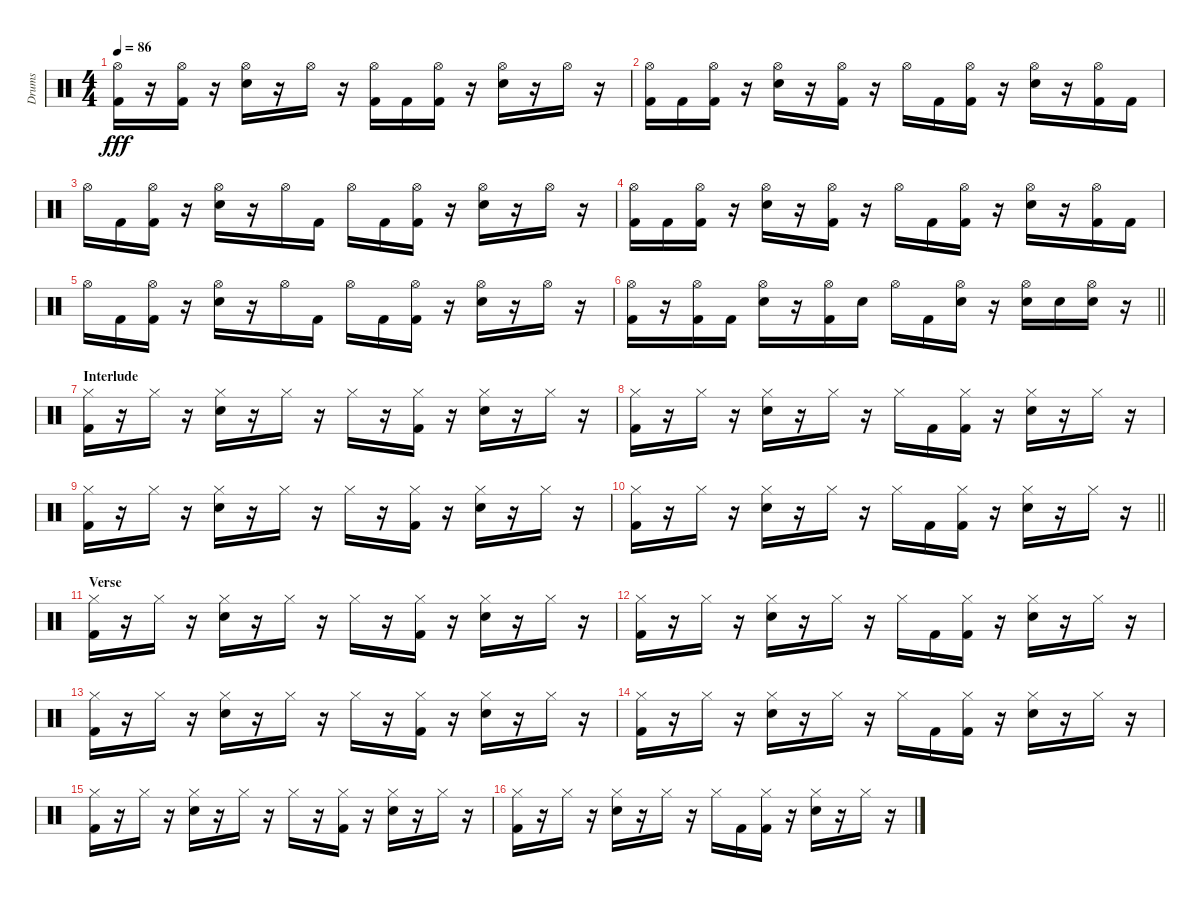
\track ("Drums" "Drums") {instrument percussion}
\staff {score}
\articulation defaults
\ts (4 4)
\tempo 86
\clef neutral
\ks c
("Hi-Hat (open)" "Kick (hit) 2").16{dy fff} r.16 ("Hi-Hat (open)" "Kick (hit) 2").16 r.16 ("Hi-Hat (open)" "Electric Snare (hit)").16 r.16 "Hi-Hat (open)".16 r.16 ("Hi-Hat (open)" "Kick (hit) 2").16 "Kick (hit) 2".16 ("Hi-Hat (open)" "Kick (hit) 2").16 r.16 ("Hi-Hat (open)" "Electric Snare (hit)").16 r.16 "Hi-Hat (open)".16 r.16 |
("Hi-Hat (open)" "Kick (hit) 2").16 "Kick (hit) 2".16 ("Hi-Hat (open)" "Kick (hit) 2").16 r.16 ("Hi-Hat (open)" "Electric Snare (hit)").16 r.16 ("Hi-Hat (open)" "Kick (hit) 2").16 r.16 "Hi-Hat (open)".16 "Kick (hit) 2".16 ("Hi-Hat (open)" "Kick (hit) 2").16 r.16 ("Hi-Hat (open)" "Electric Snare (hit)").16 r.16 ("Hi-Hat (open)" "Kick (hit) 2").16 "Kick (hit) 2".16 |
"Hi-Hat (open)".16 "Kick (hit) 2".16 ("Hi-Hat (open)" "Kick (hit) 2").16 r.16 ("Hi-Hat (open)" "Electric Snare (hit)").16 r.16 "Hi-Hat (open)".16 "Kick (hit) 2".16 "Hi-Hat (open)".16 "Kick (hit) 2".16 ("Hi-Hat (open)" "Kick (hit) 2").16 r.16 ("Hi-Hat (open)" "Electric Snare (hit)").16 r.16 "Hi-Hat (open)".16 r.16 |
("Hi-Hat (open)" "Kick (hit) 2").16 "Kick (hit) 2".16 ("Hi-Hat (open)" "Kick (hit) 2").16 r.16 ("Hi-Hat (open)" "Electric Snare (hit)").16 r.16 ("Hi-Hat (open)" "Kick (hit) 2").16 r.16 "Hi-Hat (open)".16 "Kick (hit) 2".16 ("Hi-Hat (open)" "Kick (hit) 2").16 r.16 ("Hi-Hat (open)" "Electric Snare (hit)").16 r.16 ("Hi-Hat (open)" "Kick (hit) 2").16 "Kick (hit) 2".16 |
"Hi-Hat (open)".16 "Kick (hit) 2".16 ("Hi-Hat (open)" "Kick (hit) 2").16 r.16 ("Hi-Hat (open)" "Electric Snare (hit)").16 r.16 "Hi-Hat (open)".16 "Kick (hit) 2".16 "Hi-Hat (open)".16 "Kick (hit) 2".16 ("Hi-Hat (open)" "Kick (hit) 2").16 r.16 ("Hi-Hat (open)" "Electric Snare (hit)").16 r.16 "Hi-Hat (open)".16 r.16 |
\barLineRight lightlight
("Hi-Hat (open)" "Kick (hit) 2").16 r.16 ("Hi-Hat (open)" "Kick (hit) 2").16 "Kick (hit) 2".16 ("Hi-Hat (open)" "Electric Snare (hit)").16 r.16 ("Hi-Hat (open)" "Kick (hit) 2").16 "Electric Snare (hit)".16 "Hi-Hat (open)".16 "Kick (hit) 2".16 ("Hi-Hat (open)" "Electric Snare (hit)").16 r.16 ("Hi-Hat (open)" "Electric Snare (hit)").16 "Electric Snare (hit)".16 ("Hi-Hat (open)" "Electric Snare (hit)").16 r.16 |
\section ("" "Interlude")
("Hi-Hat (closed)" "Kick (hit) 2").16 r.16 "Hi-Hat (closed)".16 r.16 ("Hi-Hat (closed)" "Electric Snare (hit)").16 r.16 "Hi-Hat (closed)".16 r.16 "Hi-Hat (closed)".16 r.16 ("Hi-Hat (closed)" "Kick (hit) 2").16 r.16 ("Hi-Hat (closed)" "Electric Snare (hit)").16 r.16 "Hi-Hat (closed)".16 r.16 |
("Hi-Hat (closed)" "Kick (hit) 2").16 r.16 "Hi-Hat (closed)".16 r.16 ("Hi-Hat (closed)" "Electric Snare (hit)").16 r.16 "Hi-Hat (closed)".16 r.16 "Hi-Hat (closed)".16 "Kick (hit) 2".16 ("Hi-Hat (closed)" "Kick (hit) 2").16 r.16 ("Hi-Hat (closed)" "Electric Snare (hit)").16 r.16 "Hi-Hat (closed)".16 r.16 |
("Hi-Hat (closed)" "Kick (hit) 2").16 r.16 "Hi-Hat (closed)".16 r.16 ("Hi-Hat (closed)" "Electric Snare (hit)").16 r.16 "Hi-Hat (closed)".16 r.16 "Hi-Hat (closed)".16 r.16 ("Hi-Hat (closed)" "Kick (hit) 2").16 r.16 ("Hi-Hat (closed)" "Electric Snare (hit)").16 r.16 "Hi-Hat (closed)".16 r.16 |
\barLineRight lightlight
("Hi-Hat (closed)" "Kick (hit) 2").16 r.16 "Hi-Hat (closed)".16 r.16 ("Hi-Hat (closed)" "Electric Snare (hit)").16 r.16 "Hi-Hat (closed)".16 r.16 "Hi-Hat (closed)".16 "Kick (hit) 2".16 ("Hi-Hat (closed)" "Kick (hit) 2").16 r.16 ("Hi-Hat (closed)" "Electric Snare (hit)").16 r.16 "Hi-Hat (closed)".16 r.16 |
\section ("" "Verse")
("Hi-Hat (closed)" "Kick (hit) 2").16 r.16 "Hi-Hat (closed)".16 r.16 ("Hi-Hat (closed)" "Electric Snare (hit)").16 r.16 "Hi-Hat (closed)".16 r.16 "Hi-Hat (closed)".16 r.16 ("Hi-Hat (closed)" "Kick (hit) 2").16 r.16 ("Hi-Hat (closed)" "Electric Snare (hit)").16 r.16 "Hi-Hat (closed)".16 r.16 |
("Hi-Hat (closed)" "Kick (hit) 2").16 r.16 "Hi-Hat (closed)".16 r.16 ("Hi-Hat (closed)" "Electric Snare (hit)").16 r.16 "Hi-Hat (closed)".16 r.16 "Hi-Hat (closed)".16 "Kick (hit) 2".16 ("Hi-Hat (closed)" "Kick (hit) 2").16 r.16 ("Hi-Hat (closed)" "Electric Snare (hit)").16 r.16 "Hi-Hat (closed)".16 r.16 |
("Hi-Hat (closed)" "Kick (hit) 2").16 r.16 "Hi-Hat (closed)".16 r.16 ("Hi-Hat (closed)" "Electric Snare (hit)").16 r.16 "Hi-Hat (closed)".16 r.16 "Hi-Hat (closed)".16 r.16 ("Hi-Hat (closed)" "Kick (hit) 2").16 r.16 ("Hi-Hat (closed)" "Electric Snare (hit)").16 r.16 "Hi-Hat (closed)".16 r.16 |
("Hi-Hat (closed)" "Kick (hit) 2").16 r.16 "Hi-Hat (closed)".16 r.16 ("Hi-Hat (closed)" "Electric Snare (hit)").16 r.16 "Hi-Hat (closed)".16 r.16 "Hi-Hat (closed)".16 "Kick (hit) 2".16 ("Hi-Hat (closed)" "Kick (hit) 2").16 r.16 ("Hi-Hat (closed)" "Electric Snare (hit)").16 r.16 "Hi-Hat (closed)".16 r.16 |
("Hi-Hat (closed)" "Kick (hit) 2").16 r.16 "Hi-Hat (closed)".16 r.16 ("Hi-Hat (closed)" "Electric Snare (hit)").16 r.16 "Hi-Hat (closed)".16 r.16 "Hi-Hat (closed)".16 r.16 ("Hi-Hat (closed)" "Kick (hit) 2").16 r.16 ("Hi-Hat (closed)" "Electric Snare (hit)").16 r.16 "Hi-Hat (closed)".16 r.16 |
("Hi-Hat (closed)" "Kick (hit) 2").16 r.16 "Hi-Hat (closed)".16 r.16 ("Hi-Hat (closed)" "Electric Snare (hit)").16 r.16 "Hi-Hat (closed)".16 r.16 "Hi-Hat (closed)".16 "Kick (hit) 2".16 ("Hi-Hat (closed)" "Kick (hit) 2").16 r.16 ("Hi-Hat (closed)" "Electric Snare (hit)").16 r.16 "Hi-Hat (closed)".16 r.16
